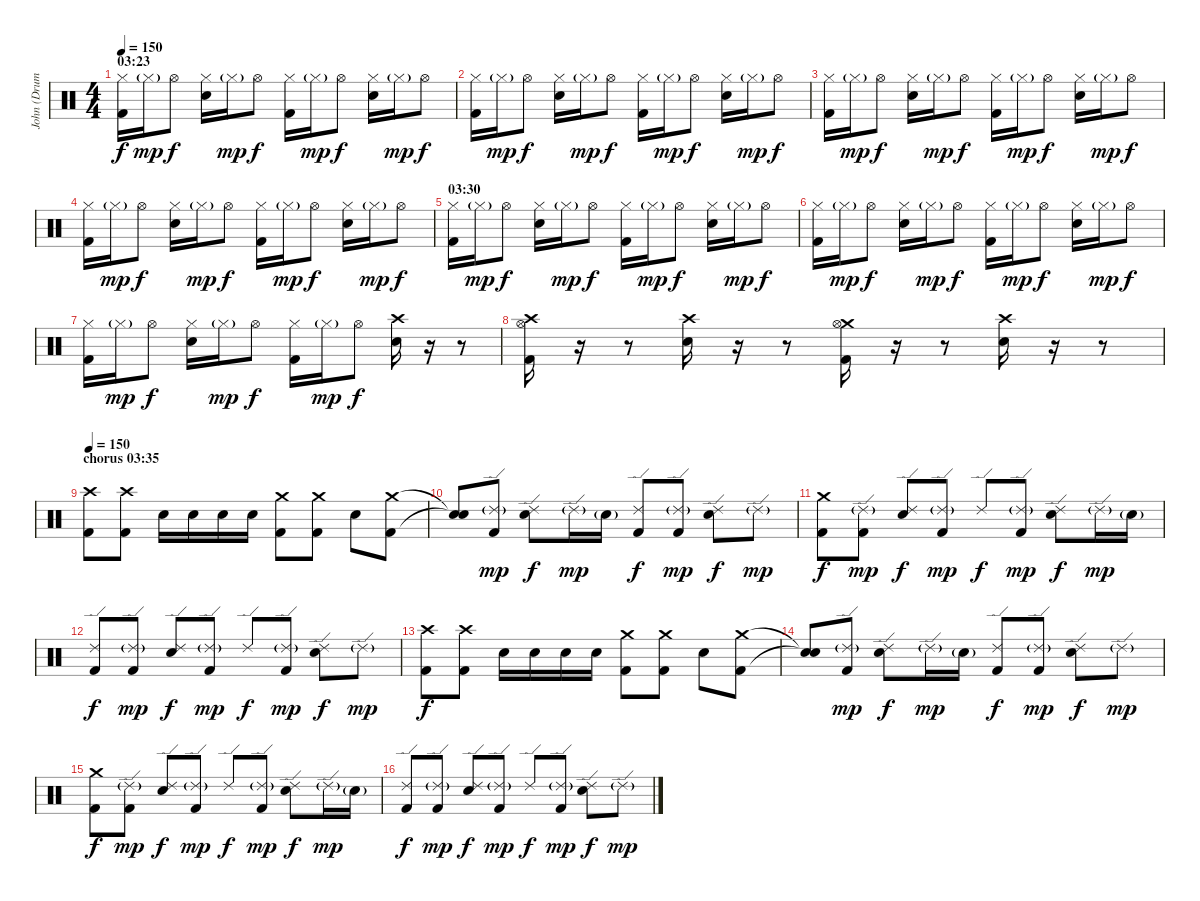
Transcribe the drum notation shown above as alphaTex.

\track ("John (Drums)" "John (Drum") {instrument percussion}
\staff {score}
\articulation defaults
\ts (4 4)
\section ("" "03:23")
\tempo 150
\clef neutral
\ks c
("Hi-Hat (closed)" "Kick (hit) 2").16{dy f} "Hi-Hat (closed)"{g}.16{dy mp} "Hi-Hat (open)".8{dy f} ("Hi-Hat (closed)" "Snare (hit) 2").16 "Hi-Hat (closed)"{g}.16{dy mp} "Hi-Hat (open)".8{dy f} ("Hi-Hat (closed)" "Kick (hit) 2").16 "Hi-Hat (closed)"{g}.16{dy mp} "Hi-Hat (open)".8{dy f} ("Hi-Hat (closed)" "Snare (hit) 2").16 "Hi-Hat (closed)"{g}.16{dy mp} "Hi-Hat (open)".8{dy f} |
("Hi-Hat (closed)" "Kick (hit) 2").16 "Hi-Hat (closed)"{g}.16{dy mp} "Hi-Hat (open)".8{dy f} ("Hi-Hat (closed)" "Snare (hit) 2").16 "Hi-Hat (closed)"{g}.16{dy mp} "Hi-Hat (open)".8{dy f} ("Hi-Hat (closed)" "Kick (hit) 2").16 "Hi-Hat (closed)"{g}.16{dy mp} "Hi-Hat (open)".8{dy f} ("Hi-Hat (closed)" "Snare (hit) 2").16 "Hi-Hat (closed)"{g}.16{dy mp} "Hi-Hat (open)".8{dy f} |
("Hi-Hat (closed)" "Kick (hit) 2").16 "Hi-Hat (closed)"{g}.16{dy mp} "Hi-Hat (open)".8{dy f} ("Hi-Hat (closed)" "Snare (hit) 2").16 "Hi-Hat (closed)"{g}.16{dy mp} "Hi-Hat (open)".8{dy f} ("Hi-Hat (closed)" "Kick (hit) 2").16 "Hi-Hat (closed)"{g}.16{dy mp} "Hi-Hat (open)".8{dy f} ("Hi-Hat (closed)" "Snare (hit) 2").16 "Hi-Hat (closed)"{g}.16{dy mp} "Hi-Hat (open)".8{dy f} |
("Hi-Hat (closed)" "Kick (hit) 2").16 "Hi-Hat (closed)"{g}.16{dy mp} "Hi-Hat (open)".8{dy f} ("Hi-Hat (closed)" "Snare (hit) 2").16 "Hi-Hat (closed)"{g}.16{dy mp} "Hi-Hat (open)".8{dy f} ("Hi-Hat (closed)" "Kick (hit) 2").16 "Hi-Hat (closed)"{g}.16{dy mp} "Hi-Hat (open)".8{dy f} ("Hi-Hat (closed)" "Snare (hit) 2").16 "Hi-Hat (closed)"{g}.16{dy mp} "Hi-Hat (open)".8{dy f} |
\section ("" "03:30")
("Hi-Hat (closed)" "Kick (hit) 2").16 "Hi-Hat (closed)"{g}.16{dy mp} "Hi-Hat (open)".8{dy f} ("Hi-Hat (closed)" "Snare (hit) 2").16 "Hi-Hat (closed)"{g}.16{dy mp} "Hi-Hat (open)".8{dy f} ("Hi-Hat (closed)" "Kick (hit) 2").16 "Hi-Hat (closed)"{g}.16{dy mp} "Hi-Hat (open)".8{dy f} ("Hi-Hat (closed)" "Snare (hit) 2").16 "Hi-Hat (closed)"{g}.16{dy mp} "Hi-Hat (open)".8{dy f} |
("Hi-Hat (closed)" "Kick (hit) 2").16 "Hi-Hat (closed)"{g}.16{dy mp} "Hi-Hat (open)".8{dy f} ("Hi-Hat (closed)" "Snare (hit) 2").16 "Hi-Hat (closed)"{g}.16{dy mp} "Hi-Hat (open)".8{dy f} ("Hi-Hat (closed)" "Kick (hit) 2").16 "Hi-Hat (closed)"{g}.16{dy mp} "Hi-Hat (open)".8{dy f} ("Hi-Hat (closed)" "Snare (hit) 2").16 "Hi-Hat (closed)"{g}.16{dy mp} "Hi-Hat (open)".8{dy f} |
("Hi-Hat (closed)" "Kick (hit) 2").16 "Hi-Hat (closed)"{g}.16{dy mp} "Hi-Hat (open)".8{dy f} ("Hi-Hat (closed)" "Snare (hit) 2").16 "Hi-Hat (closed)"{g}.16{dy mp} "Hi-Hat (open)".8{dy f} ("Hi-Hat (closed)" "Kick (hit) 2").16 "Hi-Hat (closed)"{g}.16{dy mp} "Hi-Hat (open)".8{dy f} ("Crash high (hit)" "Snare (hit) 2").16 r.16 r.8 |
("Crash high (hit)" "Hi-Hat (open)" "Kick (hit) 2").16 r.16 r.8 ("Crash high (hit)" "Snare (hit) 2").16 r.16 r.8 ("Crash medium (hit)" "Hi-Hat (open)" "Kick (hit) 2").16 r.16 r.8 ("Crash high (hit)" "Snare (hit) 2").16 r.16 r.8 |
\section ("" "chorus 03:35")
\tempo 150
("Crash high (hit)" "Kick (hit) 2").8{volume 14} ("Crash high (hit)" "Kick (hit) 2").8 "Snare (hit) 2".16 "Snare (hit) 2".16 "Snare (hit) 2".16 "Snare (hit) 2".16 ("Crash medium (hit)" "Kick (hit) 2").8 ("Crash medium (hit)" "Kick (hit) 2").8 "Snare (hit) 2".8 ("Crash medium (hit)" "Kick (hit) 2").8 |
("Snare (hit)"{t} "Snare (hit)"{t}).8 ("Ride (edge) 2"{g} "Kick (hit) 2").8{dy mp} ("Ride (edge) 2" "Snare (hit) 2").8{dy f} "Ride (edge) 2"{g}.16{dy mp} "Snare (hit) 2"{g}.16 ("Ride (edge) 2" "Kick (hit) 2").8{dy f} ("Ride (edge) 2"{g} "Kick (hit) 2").8{dy mp} ("Ride (edge) 2" "Snare (hit) 2").8{dy f} "Ride (edge) 2"{g}.8{dy mp} |
("Crash medium (hit)" "Kick (hit) 2").8{dy f} ("Ride (edge) 2"{g} "Kick (hit) 2").8{dy mp} ("Ride (edge) 2" "Snare (hit) 2").8{dy f} ("Ride (edge) 2"{g} "Kick (hit) 2").8{dy mp} "Ride (edge) 2".8{dy f} ("Ride (edge) 2"{g} "Kick (hit) 2").8{dy mp} ("Ride (edge) 2" "Snare (hit) 2").8{dy f} "Ride (edge) 2"{g}.16{dy mp} "Snare (hit) 2"{g}.16 |
("Ride (edge) 2" "Kick (hit) 2").8{dy f} ("Ride (edge) 2"{g} "Kick (hit) 2").8{dy mp} ("Ride (edge) 2" "Snare (hit) 2").8{dy f} ("Ride (edge) 2"{g} "Kick (hit) 2").8{dy mp} "Ride (edge) 2".8{dy f} ("Ride (edge) 2"{g} "Kick (hit) 2").8{dy mp} ("Ride (edge) 2" "Snare (hit) 2").8{dy f} "Ride (edge) 2"{g}.8{dy mp} |
("Crash high (hit)" "Kick (hit) 2").8{dy f} ("Crash high (hit)" "Kick (hit) 2").8 "Snare (hit) 2".16 "Snare (hit) 2".16 "Snare (hit) 2".16 "Snare (hit) 2".16 ("Crash medium (hit)" "Kick (hit) 2").8 ("Crash medium (hit)" "Kick (hit) 2").8 "Snare (hit) 2".8 ("Crash medium (hit)" "Kick (hit) 2").8 |
("Snare (hit)"{t} "Snare (hit)"{t}).8 ("Ride (edge) 2"{g} "Kick (hit) 2").8{dy mp} ("Ride (edge) 2" "Snare (hit) 2").8{dy f} "Ride (edge) 2"{g}.16{dy mp} "Snare (hit) 2"{g}.16 ("Ride (edge) 2" "Kick (hit) 2").8{dy f} ("Ride (edge) 2"{g} "Kick (hit) 2").8{dy mp} ("Ride (edge) 2" "Snare (hit) 2").8{dy f} "Ride (edge) 2"{g}.8{dy mp} |
("Crash medium (hit)" "Kick (hit) 2").8{dy f} ("Ride (edge) 2"{g} "Kick (hit) 2").8{dy mp} ("Ride (edge) 2" "Snare (hit) 2").8{dy f} ("Ride (edge) 2"{g} "Kick (hit) 2").8{dy mp} "Ride (edge) 2".8{dy f} ("Ride (edge) 2"{g} "Kick (hit) 2").8{dy mp} ("Ride (edge) 2" "Snare (hit) 2").8{dy f} "Ride (edge) 2"{g}.16{dy mp} "Snare (hit) 2"{g}.16 |
("Ride (edge) 2" "Kick (hit) 2").8{dy f} ("Ride (edge) 2"{g} "Kick (hit) 2").8{dy mp} ("Ride (edge) 2" "Snare (hit) 2").8{dy f} ("Ride (edge) 2"{g} "Kick (hit) 2").8{dy mp} "Ride (edge) 2".8{dy f} ("Ride (edge) 2"{g} "Kick (hit) 2").8{dy mp} ("Ride (edge) 2" "Snare (hit) 2").8{dy f} "Ride (edge) 2"{g}.8{dy mp}
